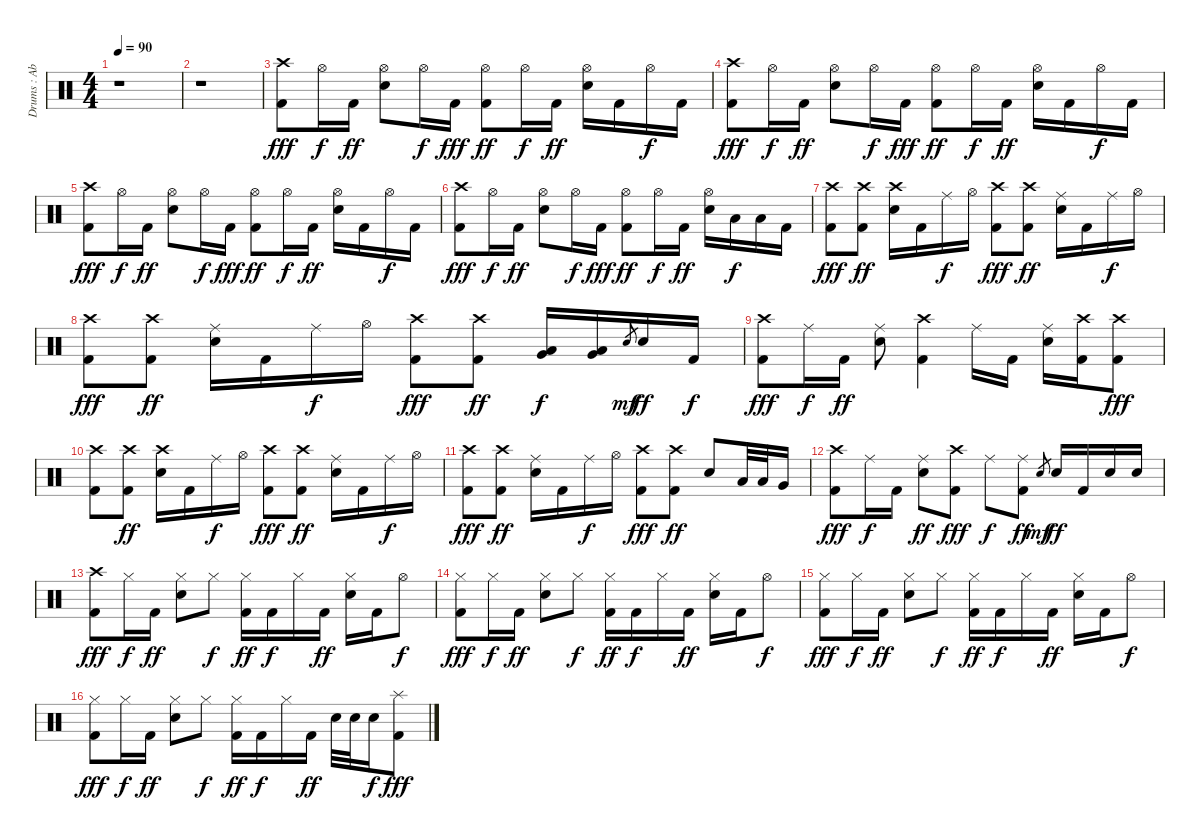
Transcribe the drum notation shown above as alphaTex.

\track ("Drums : Abe Cunnigham" "Drums : Ab") {instrument percussion}
\staff {score}
\articulation defaults
\ts (4 4)
\tempo 90
\clef neutral
\ks c
r.1{dy fff} |
r.1 |
("Crash high (hit)" "Kick (hit) 2").8 "Hi-Hat (open)".16{dy f} "Kick (hit) 2".16{dy ff} ("Hi-Hat (open)" "Electric Snare (hit)").8 "Hi-Hat (open)".16{dy f} "Kick (hit) 2".16{dy fff} ("Hi-Hat (open)" "Kick (hit) 2").8{dy ff} "Hi-Hat (open)".16{dy f} "Kick (hit) 2".16{dy ff} ("Hi-Hat (open)" "Electric Snare (hit)").16 "Kick (hit) 2".16 "Hi-Hat (open)".16{dy f} "Kick (hit) 2".16 |
("Crash high (hit)" "Kick (hit) 2").8{dy fff} "Hi-Hat (open)".16{dy f} "Kick (hit) 2".16{dy ff} ("Hi-Hat (open)" "Electric Snare (hit)").8 "Hi-Hat (open)".16{dy f} "Kick (hit) 2".16{dy fff} ("Hi-Hat (open)" "Kick (hit) 2").8{dy ff} "Hi-Hat (open)".16{dy f} "Kick (hit) 2".16{dy ff} ("Hi-Hat (open)" "Electric Snare (hit)").16 "Kick (hit) 2".16 "Hi-Hat (open)".16{dy f} "Kick (hit) 2".16 |
("Crash high (hit)" "Kick (hit) 2").8{dy fff} "Hi-Hat (open)".16{dy f} "Kick (hit) 2".16{dy ff} ("Hi-Hat (open)" "Electric Snare (hit)").8 "Hi-Hat (open)".16{dy f} "Kick (hit) 2".16{dy fff} ("Hi-Hat (open)" "Kick (hit) 2").8{dy ff} "Hi-Hat (open)".16{dy f} "Kick (hit) 2".16{dy ff} ("Hi-Hat (open)" "Electric Snare (hit)").16 "Kick (hit) 2".16 "Hi-Hat (open)".16{dy f} "Kick (hit) 2".16 |
("Crash high (hit)" "Kick (hit) 2").8{dy fff} "Hi-Hat (open)".16{dy f} "Kick (hit) 2".16{dy ff} ("Hi-Hat (open)" "Electric Snare (hit)").8 "Hi-Hat (open)".16{dy f} "Kick (hit) 2".16{dy fff} ("Hi-Hat (open)" "Kick (hit) 2").8{dy ff} "Hi-Hat (open)".16{dy f} "Kick (hit) 2".16{dy ff} ("Hi-Hat (open)" "Electric Snare (hit)").16 "Low Tom (hit)".16{dy f} "Low Tom (hit)".16 "Kick (hit) 2".16 |
("Crash high (hit)" "Kick (hit) 2").8{dy fff} ("Crash high (hit)" "Kick (hit) 2").8{dy ff} ("Crash high (hit)" "Electric Snare (hit)").16 "Kick (hit) 2".16 "Ride (middle)".16{dy f} "Hi-Hat (open)".16 ("Crash high (hit)" "Kick (hit) 2").8{dy fff} ("Crash high (hit)" "Kick (hit) 2").8{dy ff} ("Ride (middle)" "Electric Snare (hit)").16 "Kick (hit) 2".16 "Ride (middle)".16{dy f} "Hi-Hat (open)".16 |
("Crash high (hit)" "Kick (hit) 2").8{dy fff} ("Crash high (hit)" "Kick (hit) 2").8{dy ff} ("Ride (middle)" "Electric Snare (hit)").16 "Kick (hit) 2".16 "Ride (middle)".16{dy f} "Hi-Hat (open)".16 ("Crash high (hit)" "Kick (hit) 2").8{dy fff} ("Crash high (hit)" "Kick (hit) 2").8{dy ff} ("Low Tom (hit)" "Very Low Tom (hit)").16{dy f} ("Low Tom (hit)" "Very Low Tom (hit)").16 "Electric Snare (hit)".8{gr dy mf} "Electric Snare (hit)".16{dy ff} "Kick (hit) 2".16{dy f} |
("Crash high (hit)" "Kick (hit) 2").8{dy fff} "Ride (middle)".16{dy f} "Kick (hit) 2".16{dy ff} ("Ride (middle)" "Electric Snare (hit)").8 ("Crash high (hit)" "Kick (hit) 2").4 "Ride (middle)".16 "Kick (hit) 2".16 ("Ride (middle)" "Electric Snare (hit)").16 ("Crash high (hit)" "Kick (hit) 2").16 ("Crash high (hit)" "Kick (hit) 2").8{dy fff} |
("Crash high (hit)" "Kick (hit) 2").8 ("Crash high (hit)" "Kick (hit) 2").8{dy ff} ("Crash high (hit)" "Electric Snare (hit)").16 "Kick (hit) 2".16 "Ride (middle)".16{dy f} "Hi-Hat (open)".16 ("Crash high (hit)" "Kick (hit) 2").8{dy fff} ("Crash high (hit)" "Kick (hit) 2").8{dy ff} ("Ride (middle)" "Electric Snare (hit)").16 "Kick (hit) 2".16 "Ride (middle)".16{dy f} "Hi-Hat (open)".16 |
("Crash high (hit)" "Kick (hit) 2").8{dy fff} ("Crash high (hit)" "Kick (hit) 2").8{dy ff} ("Ride (middle)" "Electric Snare (hit)").16 "Kick (hit) 2".16 "Ride (middle)".16{dy f} "Hi-Hat (open)".16 ("Crash high (hit)" "Kick (hit) 2").8{dy fff} ("Crash high (hit)" "Kick (hit) 2").8{dy ff} "Electric Snare (hit)".8 "Low Tom (hit)".32 "Low Tom (hit)".32 "Very Low Tom (hit)".16 |
("Crash high (hit)" "Kick (hit) 2").8{dy fff} "Ride (middle)".16{dy f} "Kick (hit) 2".16 ("Ride (middle)" "Electric Snare (hit)").8{dy ff} ("Crash high (hit)" "Kick (hit) 2").8{dy fff} "Ride (middle)".8{dy f} ("Ride (middle)" "Kick (hit) 2").8{dy ff} "Electric Snare (hit)".8{gr dy mf} "Electric Snare (hit)".16{dy ff} "Kick (hit) 2".16 "Electric Snare (hit)".16 "Electric Snare (hit)".16 |
("Crash high (hit)" "Kick (hit) 2").8{dy fff} "Hi-Hat (closed)".16{dy f} "Kick (hit) 2".16{dy ff} ("Hi-Hat (closed)" "Electric Snare (hit)").8 "Hi-Hat (closed)".8{dy f} ("Hi-Hat (closed)" "Kick (hit) 2").16{dy ff} "Kick (hit) 2".16{dy f} "Hi-Hat (closed)".16 "Kick (hit) 2".16{dy ff} ("Hi-Hat (closed)" "Electric Snare (hit)").16 "Kick (hit) 2".16 "Hi-Hat (open)".8{dy f} |
("Hi-Hat (closed)" "Kick (hit) 2").8{dy fff} "Hi-Hat (closed)".16{dy f} "Kick (hit) 2".16{dy ff} ("Hi-Hat (closed)" "Electric Snare (hit)").8 "Hi-Hat (closed)".8{dy f} ("Hi-Hat (closed)" "Kick (hit) 2").16{dy ff} "Kick (hit) 2".16{dy f} "Hi-Hat (closed)".16 "Kick (hit) 2".16{dy ff} ("Hi-Hat (closed)" "Electric Snare (hit)").16 "Kick (hit) 2".16 "Hi-Hat (open)".8{dy f} |
("Hi-Hat (closed)" "Kick (hit) 2").8{dy fff} "Hi-Hat (closed)".16{dy f} "Kick (hit) 2".16{dy ff} ("Hi-Hat (closed)" "Electric Snare (hit)").8 "Hi-Hat (closed)".8{dy f} ("Hi-Hat (closed)" "Kick (hit) 2").16{dy ff} "Kick (hit) 2".16{dy f} "Hi-Hat (closed)".16 "Kick (hit) 2".16{dy ff} ("Hi-Hat (closed)" "Electric Snare (hit)").16 "Kick (hit) 2".16 "Hi-Hat (open)".8{dy f} |
("Hi-Hat (closed)" "Kick (hit) 2").8{dy fff} "Hi-Hat (closed)".16{dy f} "Kick (hit) 2".16{dy ff} ("Hi-Hat (closed)" "Electric Snare (hit)").8 "Hi-Hat (closed)".8{dy f} ("Hi-Hat (closed)" "Kick (hit) 2").16{dy ff} "Kick (hit) 2".16{dy f} "Hi-Hat (closed)".16 "Kick (hit) 2".16{dy ff} "Electric Snare (hit)".32 "Electric Snare (hit)".32 "Electric Snare (hit)".16{dy f} ("Splash (hit)" "Kick (hit) 2").8{dy fff}
